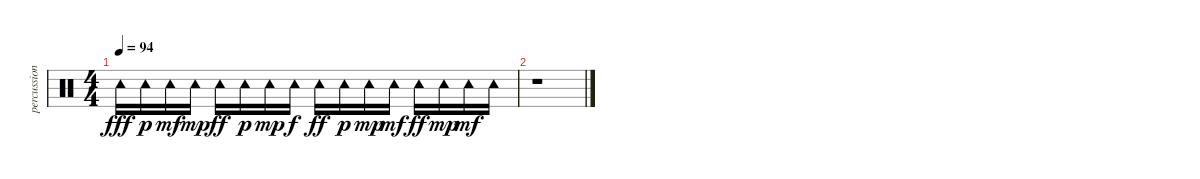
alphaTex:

\track ("percussion" "percussion") {instrument percussion}
\staff {score}
\articulation defaults
\ts (4 4)
\tempo 94
\clef neutral
\ks c "Tambourine (hit)".16{dy fff} "Tambourine (hit)".16{dy p} "Tambourine (hit)".16{dy mf volume 2} "Tambourine (hit)".16{dy mp volume 2} "Tambourine (hit)".16{dy ff volume 2} "Tambourine (hit)".16{dy p volume 2} "Tambourine (hit)".16{dy mp} "Tambourine (hit)".16{dy f} "Tambourine (hit)".16{dy ff} "Tambourine (hit)".16{dy p} "Tambourine (hit)".16{dy mp} "Tambourine (hit)".16{dy mf} "Tambourine (hit)".16{dy ff} "Tambourine (hit)".16{dy mp} "Tambourine (hit)".16{dy mf} "Tambourine (hit)".16{volume 0}
|
r.1
